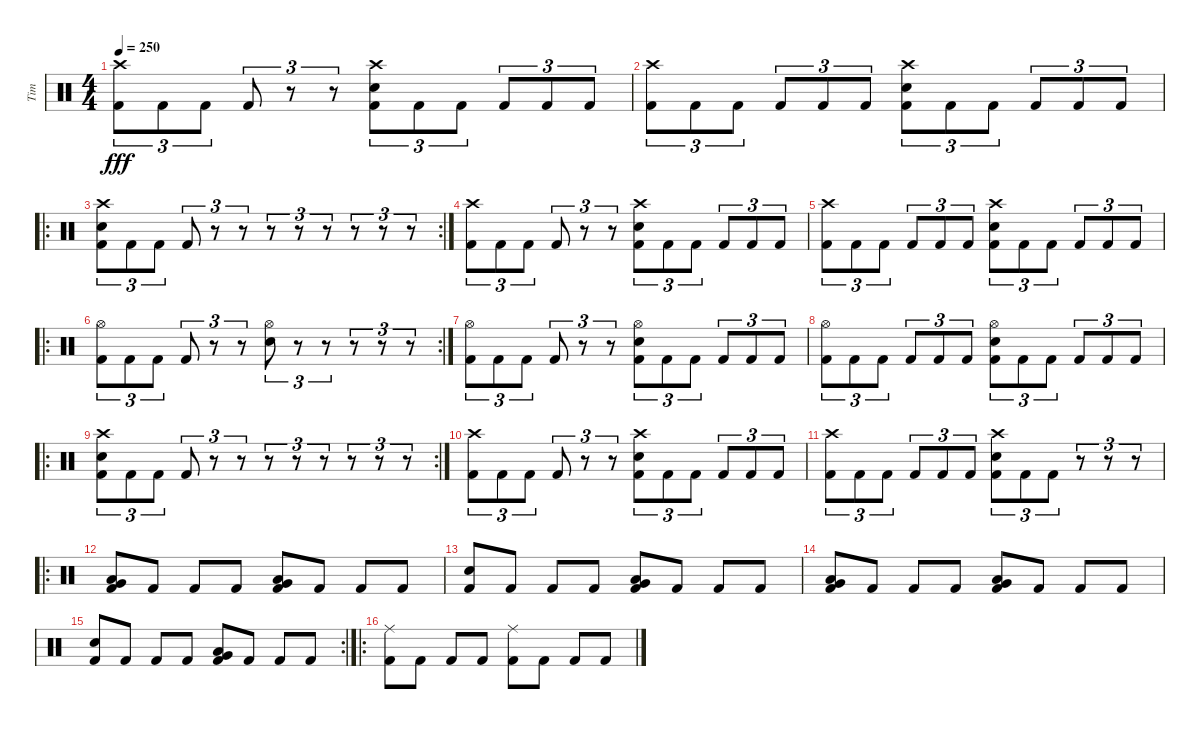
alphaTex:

\track ("Tim" "Tim") {instrument percussion}
\staff {score}
\articulation defaults
\ts (4 4)
\tempo 250
\clef neutral
\ks c
("Crash high (hit)" "Kick (hit) 2").8{tu (3 2) dy fff} "Kick (hit) 2".8{tu (3 2)} "Kick (hit) 2".8{tu (3 2)} "Kick (hit) 2".8{tu (3 2)} r.8{tu (3 2)} r.8{tu (3 2)} ("Crash high (hit)" "Electric Snare (hit)" "Kick (hit) 2").8{tu (3 2)} "Kick (hit) 2".8{tu (3 2)} "Kick (hit) 2".8{tu (3 2)} "Kick (hit) 2".8{tu (3 2)} "Kick (hit) 2".8{tu (3 2)} "Kick (hit) 2".8{tu (3 2)} |
("Crash high (hit)" "Kick (hit) 2").8{tu (3 2)} "Kick (hit) 2".8{tu (3 2)} "Kick (hit) 2".8{tu (3 2)} "Kick (hit) 2".8{tu (3 2)} "Kick (hit) 2".8{tu (3 2)} "Kick (hit) 2".8{tu (3 2)} ("Crash high (hit)" "Electric Snare (hit)" "Kick (hit) 2").8{tu (3 2)} "Kick (hit) 2".8{tu (3 2)} "Kick (hit) 2".8{tu (3 2)} "Kick (hit) 2".8{tu (3 2)} "Kick (hit) 2".8{tu (3 2)} "Kick (hit) 2".8{tu (3 2)} |
\ro
\rc 2
("Crash high (hit)" "Electric Snare (hit)" "Kick (hit) 2").8{tu (3 2)} "Kick (hit) 2".8{tu (3 2)} "Kick (hit) 2".8{tu (3 2)} "Kick (hit) 2".8{tu (3 2)} r.8{tu (3 2)} r.8{tu (3 2)} r.8{tu (3 2)} r.8{tu (3 2)} r.8{tu (3 2)} r.8{tu (3 2)} r.8{tu (3 2)} r.8{tu (3 2)} |
("Crash high (hit)" "Kick (hit) 2").8{tu (3 2)} "Kick (hit) 2".8{tu (3 2)} "Kick (hit) 2".8{tu (3 2)} "Kick (hit) 2".8{tu (3 2)} r.8{tu (3 2)} r.8{tu (3 2)} ("Crash high (hit)" "Electric Snare (hit)" "Kick (hit) 2").8{tu (3 2)} "Kick (hit) 2".8{tu (3 2)} "Kick (hit) 2".8{tu (3 2)} "Kick (hit) 2".8{tu (3 2)} "Kick (hit) 2".8{tu (3 2)} "Kick (hit) 2".8{tu (3 2)} |
("Crash high (hit)" "Kick (hit) 2").8{tu (3 2)} "Kick (hit) 2".8{tu (3 2)} "Kick (hit) 2".8{tu (3 2)} "Kick (hit) 2".8{tu (3 2)} "Kick (hit) 2".8{tu (3 2)} "Kick (hit) 2".8{tu (3 2)} ("Crash high (hit)" "Electric Snare (hit)" "Kick (hit) 2").8{tu (3 2)} "Kick (hit) 2".8{tu (3 2)} "Kick (hit) 2".8{tu (3 2)} "Kick (hit) 2".8{tu (3 2)} "Kick (hit) 2".8{tu (3 2)} "Kick (hit) 2".8{tu (3 2)} |
\ro
\rc 2
("Hi-Hat (open)" "Kick (hit) 2").8{tu (3 2)} "Kick (hit) 2".8{tu (3 2)} "Kick (hit) 2".8{tu (3 2)} "Kick (hit) 2".8{tu (3 2)} r.8{tu (3 2)} r.8{tu (3 2)} ("Hi-Hat (open)" "Electric Snare (hit)").8{tu (3 2)} r.8{tu (3 2)} r.8{tu (3 2)} r.8{tu (3 2)} r.8{tu (3 2)} r.8{tu (3 2)} |
("Hi-Hat (open)" "Kick (hit) 2").8{tu (3 2)} "Kick (hit) 2".8{tu (3 2)} "Kick (hit) 2".8{tu (3 2)} "Kick (hit) 2".8{tu (3 2)} r.8{tu (3 2)} r.8{tu (3 2)} ("Hi-Hat (open)" "Electric Snare (hit)" "Kick (hit) 2").8{tu (3 2)} "Kick (hit) 2".8{tu (3 2)} "Kick (hit) 2".8{tu (3 2)} "Kick (hit) 2".8{tu (3 2)} "Kick (hit) 2".8{tu (3 2)} "Kick (hit) 2".8{tu (3 2)} |
("Hi-Hat (open)" "Kick (hit) 2").8{tu (3 2)} "Kick (hit) 2".8{tu (3 2)} "Kick (hit) 2".8{tu (3 2)} "Kick (hit) 2".8{tu (3 2)} "Kick (hit) 2".8{tu (3 2)} "Kick (hit) 2".8{tu (3 2)} ("Hi-Hat (open)" "Electric Snare (hit)" "Kick (hit) 2").8{tu (3 2)} "Kick (hit) 2".8{tu (3 2)} "Kick (hit) 2".8{tu (3 2)} "Kick (hit) 2".8{tu (3 2)} "Kick (hit) 2".8{tu (3 2)} "Kick (hit) 2".8{tu (3 2)} |
\ro
\rc 2
("Crash high (hit)" "Electric Snare (hit)" "Kick (hit) 2").8{tu (3 2)} "Kick (hit) 2".8{tu (3 2)} "Kick (hit) 2".8{tu (3 2)} "Kick (hit) 2".8{tu (3 2)} r.8{tu (3 2)} r.8{tu (3 2)} r.8{tu (3 2)} r.8{tu (3 2)} r.8{tu (3 2)} r.8{tu (3 2)} r.8{tu (3 2)} r.8{tu (3 2)} |
("Crash high (hit)" "Kick (hit) 2").8{tu (3 2)} "Kick (hit) 2".8{tu (3 2)} "Kick (hit) 2".8{tu (3 2)} "Kick (hit) 2".8{tu (3 2)} r.8{tu (3 2)} r.8{tu (3 2)} ("Crash high (hit)" "Electric Snare (hit)" "Kick (hit) 2").8{tu (3 2)} "Kick (hit) 2".8{tu (3 2)} "Kick (hit) 2".8{tu (3 2)} "Kick (hit) 2".8{tu (3 2)} "Kick (hit) 2".8{tu (3 2)} "Kick (hit) 2".8{tu (3 2)} |
("Crash high (hit)" "Kick (hit) 2").8{tu (3 2)} "Kick (hit) 2".8{tu (3 2)} "Kick (hit) 2".8{tu (3 2)} "Kick (hit) 2".8{tu (3 2)} "Kick (hit) 2".8{tu (3 2)} "Kick (hit) 2".8{tu (3 2)} ("Crash high (hit)" "Electric Snare (hit)" "Kick (hit) 2").8{tu (3 2)} "Kick (hit) 2".8{tu (3 2)} "Kick (hit) 2".8{tu (3 2)} r.8{tu (3 2)} r.8{tu (3 2)} r.8{tu (3 2)} |
\ro
("Low Tom (hit)" "Very Low Tom (hit)" "Kick (hit) 2").8{bu 480} "Kick (hit) 2".8 "Kick (hit) 2".8 "Kick (hit) 2".8 ("Low Tom (hit)" "Very Low Tom (hit)" "Kick (hit) 2").8{bu 480} "Kick (hit) 2".8 "Kick (hit) 2".8 "Kick (hit) 2".8 |
("Electric Snare (hit)" "Kick (hit) 2").8 "Kick (hit) 2".8 "Kick (hit) 2".8 "Kick (hit) 2".8 ("Low Tom (hit)" "Very Low Tom (hit)" "Kick (hit) 2").8{bu 480} "Kick (hit) 2".8 "Kick (hit) 2".8 "Kick (hit) 2".8 |
("Low Tom (hit)" "Very Low Tom (hit)" "Kick (hit) 2").8{bu 480} "Kick (hit) 2".8 "Kick (hit) 2".8 "Kick (hit) 2".8 ("Low Tom (hit)" "Very Low Tom (hit)" "Kick (hit) 2").8{bu 480} "Kick (hit) 2".8 "Kick (hit) 2".8 "Kick (hit) 2".8 |
\rc 2
("Electric Snare (hit)" "Kick (hit) 2").8 "Kick (hit) 2".8 "Kick (hit) 2".8 "Kick (hit) 2".8 ("Low Tom (hit)" "Very Low Tom (hit)" "Kick (hit) 2").8{bu 480} "Kick (hit) 2".8 "Kick (hit) 2".8 "Kick (hit) 2".8 |
\ro
("Ride (middle)" "Kick (hit) 2").8 "Kick (hit) 2".8 "Kick (hit) 2".8 "Kick (hit) 2".8 ("Ride (middle)" "Kick (hit) 2").8 "Kick (hit) 2".8 "Kick (hit) 2".8 "Kick (hit) 2".8
